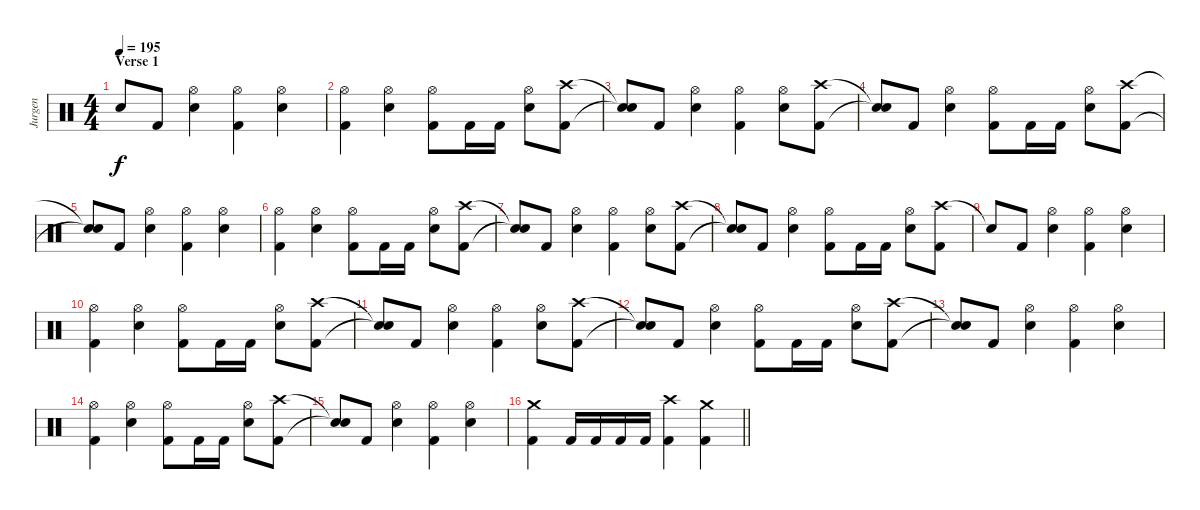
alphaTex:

\track ("Jurgen" "Jurgen") {instrument percussion}
\staff {score}
\articulation defaults
\ts (4 4)
\section ("" "Verse 1")
\tempo 195
\clef neutral
\ks c "Snare (hit)"{t}.8{dy f} "Kick (hit) 2".8
("Hi-Hat (open)" "Snare (hit) 2").4 ("Hi-Hat (open)" "Kick (hit) 2").4 ("Hi-Hat (open)" "Snare (hit) 2").4 |
("Hi-Hat (open)" "Kick (hit) 2").4 ("Hi-Hat (open)" "Snare (hit) 2").4 ("Hi-Hat (open)" "Kick (hit) 2").8 "Kick (hit) 2".16 "Kick (hit) 2".16 ("Hi-Hat (open)" "Snare (hit) 2").8 ("Crash high (hit)" "Kick (hit) 2").8 |
("Snare (hit)"{t} "Snare (hit)"{t}).8 "Kick (hit) 2".8 ("Hi-Hat (open)" "Snare (hit) 2").4 ("Hi-Hat (open)" "Kick (hit) 2").4 ("Hi-Hat (open)" "Snare (hit) 2").8 ("Crash high (hit)" "Kick (hit) 2").8 |
("Snare (hit)"{t} "Snare (hit)"{t}).8 "Kick (hit) 2".8 ("Hi-Hat (open)" "Snare (hit) 2").4 ("Hi-Hat (open)" "Kick (hit) 2").8 "Kick (hit) 2".16 "Kick (hit) 2".16 ("Hi-Hat (open)" "Snare (hit) 2").8 ("Crash high (hit)" "Kick (hit) 2").8 |
("Snare (hit)"{t} "Snare (hit)"{t}).8 "Kick (hit) 2".8 ("Hi-Hat (open)" "Snare (hit) 2").4 ("Hi-Hat (open)" "Kick (hit) 2").4 ("Hi-Hat (open)" "Snare (hit) 2").4 |
("Hi-Hat (open)" "Kick (hit) 2").4 ("Hi-Hat (open)" "Snare (hit) 2").4 ("Hi-Hat (open)" "Kick (hit) 2").8 "Kick (hit) 2".16 "Kick (hit) 2".16 ("Hi-Hat (open)" "Snare (hit) 2").8 ("Crash high (hit)" "Kick (hit) 2").8 |
("Snare (hit)"{t} "Snare (hit)"{t}).8 "Kick (hit) 2".8 ("Hi-Hat (open)" "Snare (hit) 2").4 ("Hi-Hat (open)" "Kick (hit) 2").4 ("Hi-Hat (open)" "Snare (hit) 2").8 ("Crash high (hit)" "Kick (hit) 2").8 |
("Snare (hit)"{t} "Snare (hit)"{t}).8 "Kick (hit) 2".8 ("Hi-Hat (open)" "Snare (hit) 2").4 ("Hi-Hat (open)" "Kick (hit) 2").8 "Kick (hit) 2".16 "Kick (hit) 2".16 ("Hi-Hat (open)" "Snare (hit) 2").8 ("Crash high (hit)" "Kick (hit) 2").8 |
"Snare (hit)"{t}.8 "Kick (hit) 2".8 ("Hi-Hat (open)" "Snare (hit) 2").4 ("Hi-Hat (open)" "Kick (hit) 2").4 ("Hi-Hat (open)" "Snare (hit) 2").4 |
("Hi-Hat (open)" "Kick (hit) 2").4 ("Hi-Hat (open)" "Snare (hit) 2").4 ("Hi-Hat (open)" "Kick (hit) 2").8 "Kick (hit) 2".16 "Kick (hit) 2".16 ("Hi-Hat (open)" "Snare (hit) 2").8 ("Crash high (hit)" "Kick (hit) 2").8 |
("Snare (hit)"{t} "Snare (hit)"{t}).8 "Kick (hit) 2".8 ("Hi-Hat (open)" "Snare (hit) 2").4 ("Hi-Hat (open)" "Kick (hit) 2").4 ("Hi-Hat (open)" "Snare (hit) 2").8 ("Crash high (hit)" "Kick (hit) 2").8 |
("Snare (hit)"{t} "Snare (hit)"{t}).8 "Kick (hit) 2".8 ("Hi-Hat (open)" "Snare (hit) 2").4 ("Hi-Hat (open)" "Kick (hit) 2").8 "Kick (hit) 2".16 "Kick (hit) 2".16 ("Hi-Hat (open)" "Snare (hit) 2").8 ("Crash high (hit)" "Kick (hit) 2").8 |
("Snare (hit)"{t} "Snare (hit)"{t}).8 "Kick (hit) 2".8 ("Hi-Hat (open)" "Snare (hit) 2").4 ("Hi-Hat (open)" "Kick (hit) 2").4 ("Hi-Hat (open)" "Snare (hit) 2").4 |
("Hi-Hat (open)" "Kick (hit) 2").4 ("Hi-Hat (open)" "Snare (hit) 2").4 ("Hi-Hat (open)" "Kick (hit) 2").8 "Kick (hit) 2".16 "Kick (hit) 2".16 ("Hi-Hat (open)" "Snare (hit) 2").8 ("Crash high (hit)" "Kick (hit) 2").8 |
("Snare (hit)"{t} "Snare (hit)"{t}).8 "Kick (hit) 2".8 ("Hi-Hat (open)" "Snare (hit) 2").4 ("Hi-Hat (open)" "Kick (hit) 2").4 ("Hi-Hat (open)" "Snare (hit) 2").4 |
\barLineRight lightlight
("Crash medium (hit)" "Kick (hit) 2").4 "Kick (hit) 2".16 "Kick (hit) 2".16 "Kick (hit) 2".16 "Kick (hit) 2".16 ("Crash high (hit)" "Kick (hit) 2").4 ("Crash medium (hit)" "Kick (hit) 2").4
